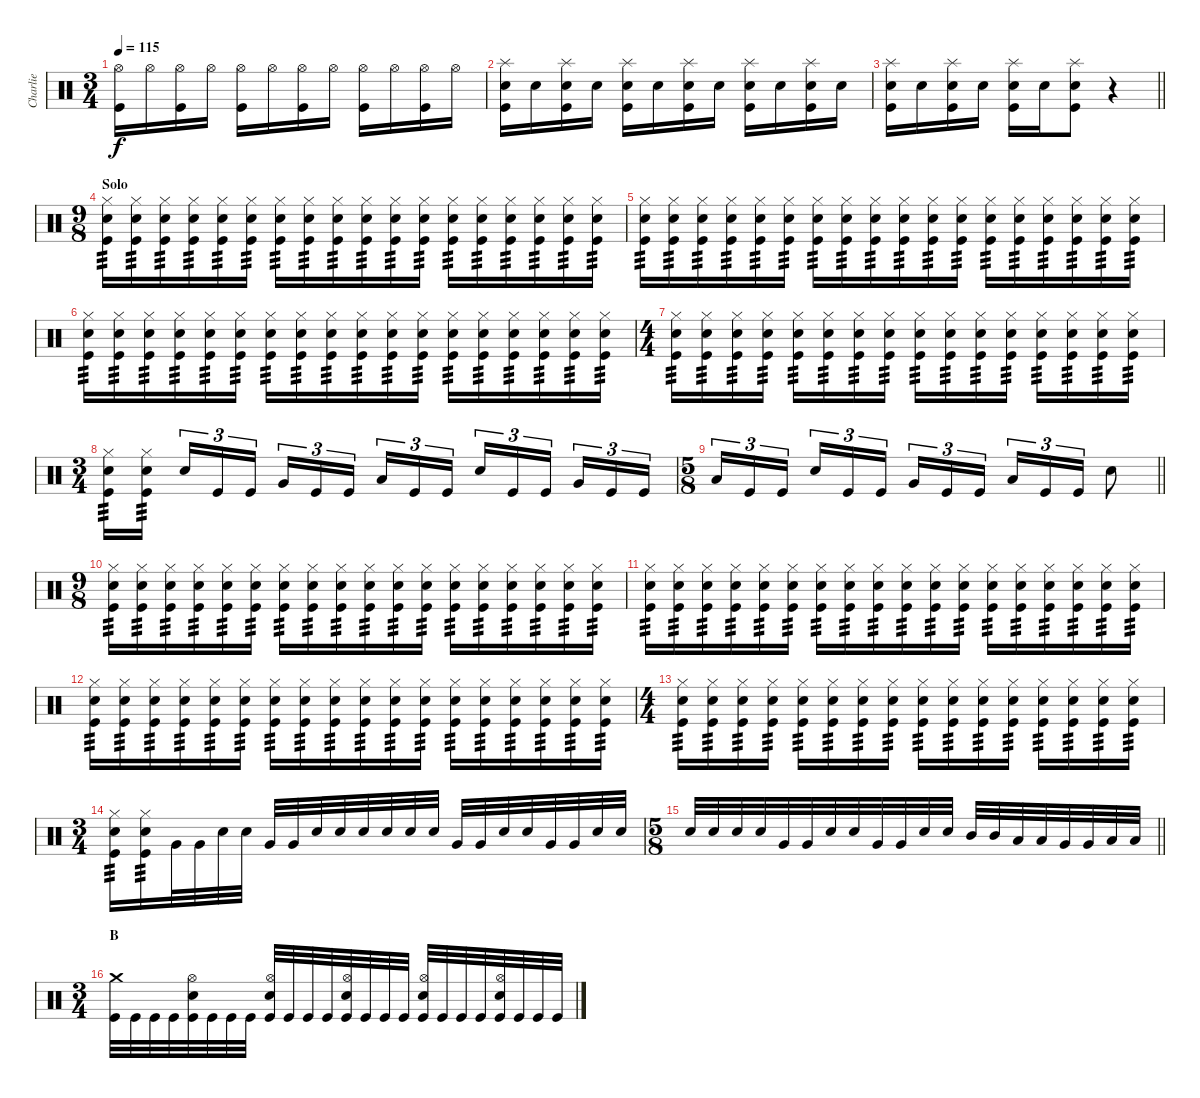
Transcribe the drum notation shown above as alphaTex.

\track ("Charlie" "Charlie") {instrument percussion}
\staff {score}
\articulation defaults
\ts (3 4)
\tempo 115
\clef neutral
\ks c
("Kick (hit)" "Hi-Hat (open)").16{dy f} "Hi-Hat (open)".16 ("Kick (hit)" "Hi-Hat (open)").16 "Hi-Hat (open)".16 ("Kick (hit)" "Hi-Hat (open)").16 "Hi-Hat (open)".16 ("Kick (hit)" "Hi-Hat (open)").16 "Hi-Hat (open)".16 ("Kick (hit)" "Hi-Hat (open)").16 "Hi-Hat (open)".16 ("Kick (hit)" "Hi-Hat (open)").16 "Hi-Hat (open)".16 |
("Kick (hit)" "Snare (hit) 2" "Splash (hit)").16 "Snare (hit) 2".16 ("Kick (hit)" "Snare (hit) 2" "Splash (hit)").16 "Snare (hit) 2".16 ("Kick (hit)" "Snare (hit) 2" "Splash (hit)").16 "Snare (hit) 2".16 ("Kick (hit)" "Snare (hit) 2" "Splash (hit)").16 "Snare (hit) 2".16 ("Kick (hit)" "Snare (hit) 2" "Splash (hit)").16 "Snare (hit) 2".16 ("Kick (hit)" "Snare (hit) 2" "Splash (hit)").16 "Snare (hit) 2".16 |
\barLineRight lightlight
("Kick (hit)" "Snare (hit) 2" "Splash (hit)").16 "Snare (hit) 2".16 ("Kick (hit)" "Snare (hit) 2" "Splash (hit)").16 "Snare (hit) 2".16 ("Kick (hit)" "Snare (hit) 2" "Splash (hit)").16 "Snare (hit) 2".16 ("Kick (hit)" "Snare (hit) 2" "Splash (hit)").8 r.4 |
\ts (9 8)
\section ("" "Solo")
("Kick (hit)" "Hi-Hat (closed)" "Snare (hit) 2").16{tp 3} ("Kick (hit)" "Hi-Hat (closed)" "Snare (hit) 2").16{tp 3} ("Kick (hit)" "Hi-Hat (closed)" "Snare (hit) 2").16{tp 3} ("Kick (hit)" "Hi-Hat (closed)" "Snare (hit) 2").16{tp 3} ("Kick (hit)" "Hi-Hat (closed)" "Snare (hit) 2").16{tp 3} ("Kick (hit)" "Hi-Hat (closed)" "Snare (hit) 2").16{tp 3} ("Kick (hit)" "Hi-Hat (closed)" "Snare (hit) 2").16{tp 3} ("Kick (hit)" "Hi-Hat (closed)" "Snare (hit) 2").16{tp 3} ("Kick (hit)" "Hi-Hat (closed)" "Snare (hit) 2").16{tp 3} ("Kick (hit)" "Hi-Hat (closed)" "Snare (hit) 2").16{tp 3} ("Kick (hit)" "Hi-Hat (closed)" "Snare (hit) 2").16{tp 3} ("Kick (hit)" "Hi-Hat (closed)" "Snare (hit) 2").16{tp 3} ("Kick (hit)" "Hi-Hat (closed)" "Snare (hit) 2").16{tp 3} ("Kick (hit)" "Hi-Hat (closed)" "Snare (hit) 2").16{tp 3} ("Kick (hit)" "Hi-Hat (closed)" "Snare (hit) 2").16{tp 3} ("Kick (hit)" "Hi-Hat (closed)" "Snare (hit) 2").16{tp 3} ("Kick (hit)" "Hi-Hat (closed)" "Snare (hit) 2").16{tp 3} ("Kick (hit)" "Hi-Hat (closed)" "Snare (hit) 2").16{tp 3} |
("Kick (hit)" "Hi-Hat (closed)" "Snare (hit) 2").16{tp 3} ("Kick (hit)" "Hi-Hat (closed)" "Snare (hit) 2").16{tp 3} ("Kick (hit)" "Hi-Hat (closed)" "Snare (hit) 2").16{tp 3} ("Kick (hit)" "Hi-Hat (closed)" "Snare (hit) 2").16{tp 3} ("Kick (hit)" "Hi-Hat (closed)" "Snare (hit) 2").16{tp 3} ("Kick (hit)" "Hi-Hat (closed)" "Snare (hit) 2").16{tp 3} ("Kick (hit)" "Hi-Hat (closed)" "Snare (hit) 2").16{tp 3} ("Kick (hit)" "Hi-Hat (closed)" "Snare (hit) 2").16{tp 3} ("Kick (hit)" "Hi-Hat (closed)" "Snare (hit) 2").16{tp 3} ("Kick (hit)" "Hi-Hat (closed)" "Snare (hit) 2").16{tp 3} ("Kick (hit)" "Hi-Hat (closed)" "Snare (hit) 2").16{tp 3} ("Kick (hit)" "Hi-Hat (closed)" "Snare (hit) 2").16{tp 3} ("Kick (hit)" "Hi-Hat (closed)" "Snare (hit) 2").16{tp 3} ("Kick (hit)" "Hi-Hat (closed)" "Snare (hit) 2").16{tp 3} ("Kick (hit)" "Hi-Hat (closed)" "Snare (hit) 2").16{tp 3} ("Kick (hit)" "Hi-Hat (closed)" "Snare (hit) 2").16{tp 3} ("Kick (hit)" "Hi-Hat (closed)" "Snare (hit) 2").16{tp 3} ("Kick (hit)" "Hi-Hat (closed)" "Snare (hit) 2").16{tp 3} |
("Kick (hit)" "Hi-Hat (closed)" "Snare (hit) 2").16{tp 3} ("Kick (hit)" "Hi-Hat (closed)" "Snare (hit) 2").16{tp 3} ("Kick (hit)" "Hi-Hat (closed)" "Snare (hit) 2").16{tp 3} ("Kick (hit)" "Hi-Hat (closed)" "Snare (hit) 2").16{tp 3} ("Kick (hit)" "Hi-Hat (closed)" "Snare (hit) 2").16{tp 3} ("Kick (hit)" "Hi-Hat (closed)" "Snare (hit) 2").16{tp 3} ("Kick (hit)" "Hi-Hat (closed)" "Snare (hit) 2").16{tp 3} ("Kick (hit)" "Hi-Hat (closed)" "Snare (hit) 2").16{tp 3} ("Kick (hit)" "Hi-Hat (closed)" "Snare (hit) 2").16{tp 3} ("Kick (hit)" "Hi-Hat (closed)" "Snare (hit) 2").16{tp 3} ("Kick (hit)" "Hi-Hat (closed)" "Snare (hit) 2").16{tp 3} ("Kick (hit)" "Hi-Hat (closed)" "Snare (hit) 2").16{tp 3} ("Kick (hit)" "Hi-Hat (closed)" "Snare (hit) 2").16{tp 3} ("Kick (hit)" "Hi-Hat (closed)" "Snare (hit) 2").16{tp 3} ("Kick (hit)" "Hi-Hat (closed)" "Snare (hit) 2").16{tp 3} ("Kick (hit)" "Hi-Hat (closed)" "Snare (hit) 2").16{tp 3} ("Kick (hit)" "Hi-Hat (closed)" "Snare (hit) 2").16{tp 3} ("Kick (hit)" "Hi-Hat (closed)" "Snare (hit) 2").16{tp 3} |
\ts (4 4)
("Kick (hit)" "Hi-Hat (closed)" "Snare (hit) 2").16{tp 3} ("Kick (hit)" "Hi-Hat (closed)" "Snare (hit) 2").16{tp 3} ("Kick (hit)" "Hi-Hat (closed)" "Snare (hit) 2").16{tp 3} ("Kick (hit)" "Hi-Hat (closed)" "Snare (hit) 2").16{tp 3} ("Kick (hit)" "Hi-Hat (closed)" "Snare (hit) 2").16{tp 3} ("Kick (hit)" "Hi-Hat (closed)" "Snare (hit) 2").16{tp 3} ("Kick (hit)" "Hi-Hat (closed)" "Snare (hit) 2").16{tp 3} ("Kick (hit)" "Hi-Hat (closed)" "Snare (hit) 2").16{tp 3} ("Kick (hit)" "Hi-Hat (closed)" "Snare (hit) 2").16{tp 3} ("Kick (hit)" "Hi-Hat (closed)" "Snare (hit) 2").16{tp 3} ("Kick (hit)" "Hi-Hat (closed)" "Snare (hit) 2").16{tp 3} ("Kick (hit)" "Hi-Hat (closed)" "Snare (hit) 2").16{tp 3} ("Kick (hit)" "Hi-Hat (closed)" "Snare (hit) 2").16{tp 3} ("Kick (hit)" "Hi-Hat (closed)" "Snare (hit) 2").16{tp 3} ("Kick (hit)" "Hi-Hat (closed)" "Snare (hit) 2").16{tp 3} ("Kick (hit)" "Hi-Hat (closed)" "Snare (hit) 2").16{tp 3} |
\ts (3 4)
("Kick (hit)" "Hi-Hat (closed)" "Snare (hit) 2").16{tp 3} ("Kick (hit)" "Hi-Hat (closed)" "Snare (hit) 2").16{tp 3 beam splitsecondary} "Snare (hit) 2".16{tu (3 2)} "Kick (hit)".16{tu (3 2)} "Kick (hit)".16{tu (3 2)} "Very Low Tom (hit)".16{tu (3 2)} "Kick (hit)".16{tu (3 2)} "Kick (hit)".16{tu (3 2) beam splitsecondary} "Low Floor Tom (hit)".16{tu (3 2)} "Kick (hit)".16{tu (3 2)} "Kick (hit)".16{tu (3 2)} "Snare (hit) 2".16{tu (3 2)} "Kick (hit)".16{tu (3 2)} "Kick (hit)".16{tu (3 2) beam splitsecondary} "Very Low Tom (hit)".16{tu (3 2)} "Kick (hit)".16{tu (3 2)} "Kick (hit)".16{tu (3 2)} |
\ts (5 8)
\barLineRight lightlight "Low Floor Tom (hit)".16{tu (3 2)} "Kick (hit)".16{tu (3 2)} "Kick (hit)".16{tu (3 2)} "Snare (hit) 2".16{tu (3 2)} "Kick (hit)".16{tu (3 2)} "Kick (hit)".16{tu (3 2)} "Very Low Tom (hit)".16{tu (3 2)} "Kick (hit)".16{tu (3 2)} "Kick (hit)".16{tu (3 2)} "Low Floor Tom (hit)".16{tu (3 2)} "Kick (hit)".16{tu (3 2)} "Kick (hit)".16{tu (3 2)} "Snare (hit) 2".8
|
\ts (9 8)
("Kick (hit)" "Hi-Hat (closed)" "Snare (hit) 2").16{tp 3} ("Kick (hit)" "Hi-Hat (closed)" "Snare (hit) 2").16{tp 3} ("Kick (hit)" "Hi-Hat (closed)" "Snare (hit) 2").16{tp 3} ("Kick (hit)" "Hi-Hat (closed)" "Snare (hit) 2").16{tp 3} ("Kick (hit)" "Hi-Hat (closed)" "Snare (hit) 2").16{tp 3} ("Kick (hit)" "Hi-Hat (closed)" "Snare (hit) 2").16{tp 3} ("Kick (hit)" "Hi-Hat (closed)" "Snare (hit) 2").16{tp 3} ("Kick (hit)" "Hi-Hat (closed)" "Snare (hit) 2").16{tp 3} ("Kick (hit)" "Hi-Hat (closed)" "Snare (hit) 2").16{tp 3} ("Kick (hit)" "Hi-Hat (closed)" "Snare (hit) 2").16{tp 3} ("Kick (hit)" "Hi-Hat (closed)" "Snare (hit) 2").16{tp 3} ("Kick (hit)" "Hi-Hat (closed)" "Snare (hit) 2").16{tp 3} ("Kick (hit)" "Hi-Hat (closed)" "Snare (hit) 2").16{tp 3} ("Kick (hit)" "Hi-Hat (closed)" "Snare (hit) 2").16{tp 3} ("Kick (hit)" "Hi-Hat (closed)" "Snare (hit) 2").16{tp 3} ("Kick (hit)" "Hi-Hat (closed)" "Snare (hit) 2").16{tp 3} ("Kick (hit)" "Hi-Hat (closed)" "Snare (hit) 2").16{tp 3} ("Kick (hit)" "Hi-Hat (closed)" "Snare (hit) 2").16{tp 3} |
("Kick (hit)" "Hi-Hat (closed)" "Snare (hit) 2").16{tp 3} ("Kick (hit)" "Hi-Hat (closed)" "Snare (hit) 2").16{tp 3} ("Kick (hit)" "Hi-Hat (closed)" "Snare (hit) 2").16{tp 3} ("Kick (hit)" "Hi-Hat (closed)" "Snare (hit) 2").16{tp 3} ("Kick (hit)" "Hi-Hat (closed)" "Snare (hit) 2").16{tp 3} ("Kick (hit)" "Hi-Hat (closed)" "Snare (hit) 2").16{tp 3} ("Kick (hit)" "Hi-Hat (closed)" "Snare (hit) 2").16{tp 3} ("Kick (hit)" "Hi-Hat (closed)" "Snare (hit) 2").16{tp 3} ("Kick (hit)" "Hi-Hat (closed)" "Snare (hit) 2").16{tp 3} ("Kick (hit)" "Hi-Hat (closed)" "Snare (hit) 2").16{tp 3} ("Kick (hit)" "Hi-Hat (closed)" "Snare (hit) 2").16{tp 3} ("Kick (hit)" "Hi-Hat (closed)" "Snare (hit) 2").16{tp 3} ("Kick (hit)" "Hi-Hat (closed)" "Snare (hit) 2").16{tp 3} ("Kick (hit)" "Hi-Hat (closed)" "Snare (hit) 2").16{tp 3} ("Kick (hit)" "Hi-Hat (closed)" "Snare (hit) 2").16{tp 3} ("Kick (hit)" "Hi-Hat (closed)" "Snare (hit) 2").16{tp 3} ("Kick (hit)" "Hi-Hat (closed)" "Snare (hit) 2").16{tp 3} ("Kick (hit)" "Hi-Hat (closed)" "Snare (hit) 2").16{tp 3} |
("Kick (hit)" "Hi-Hat (closed)" "Snare (hit) 2").16{tp 3} ("Kick (hit)" "Hi-Hat (closed)" "Snare (hit) 2").16{tp 3} ("Kick (hit)" "Hi-Hat (closed)" "Snare (hit) 2").16{tp 3} ("Kick (hit)" "Hi-Hat (closed)" "Snare (hit) 2").16{tp 3} ("Kick (hit)" "Hi-Hat (closed)" "Snare (hit) 2").16{tp 3} ("Kick (hit)" "Hi-Hat (closed)" "Snare (hit) 2").16{tp 3} ("Kick (hit)" "Hi-Hat (closed)" "Snare (hit) 2").16{tp 3} ("Kick (hit)" "Hi-Hat (closed)" "Snare (hit) 2").16{tp 3} ("Kick (hit)" "Hi-Hat (closed)" "Snare (hit) 2").16{tp 3} ("Kick (hit)" "Hi-Hat (closed)" "Snare (hit) 2").16{tp 3} ("Kick (hit)" "Hi-Hat (closed)" "Snare (hit) 2").16{tp 3} ("Kick (hit)" "Hi-Hat (closed)" "Snare (hit) 2").16{tp 3} ("Kick (hit)" "Hi-Hat (closed)" "Snare (hit) 2").16{tp 3} ("Kick (hit)" "Hi-Hat (closed)" "Snare (hit) 2").16{tp 3} ("Kick (hit)" "Hi-Hat (closed)" "Snare (hit) 2").16{tp 3} ("Kick (hit)" "Hi-Hat (closed)" "Snare (hit) 2").16{tp 3} ("Kick (hit)" "Hi-Hat (closed)" "Snare (hit) 2").16{tp 3} ("Kick (hit)" "Hi-Hat (closed)" "Snare (hit) 2").16{tp 3} |
\ts (4 4)
("Kick (hit)" "Hi-Hat (closed)" "Snare (hit) 2").16{tp 3} ("Kick (hit)" "Hi-Hat (closed)" "Snare (hit) 2").16{tp 3} ("Kick (hit)" "Hi-Hat (closed)" "Snare (hit) 2").16{tp 3} ("Kick (hit)" "Hi-Hat (closed)" "Snare (hit) 2").16{tp 3} ("Kick (hit)" "Hi-Hat (closed)" "Snare (hit) 2").16{tp 3} ("Kick (hit)" "Hi-Hat (closed)" "Snare (hit) 2").16{tp 3} ("Kick (hit)" "Hi-Hat (closed)" "Snare (hit) 2").16{tp 3} ("Kick (hit)" "Hi-Hat (closed)" "Snare (hit) 2").16{tp 3} ("Kick (hit)" "Hi-Hat (closed)" "Snare (hit) 2").16{tp 3} ("Kick (hit)" "Hi-Hat (closed)" "Snare (hit) 2").16{tp 3} ("Kick (hit)" "Hi-Hat (closed)" "Snare (hit) 2").16{tp 3} ("Kick (hit)" "Hi-Hat (closed)" "Snare (hit) 2").16{tp 3} ("Kick (hit)" "Hi-Hat (closed)" "Snare (hit) 2").16{tp 3} ("Kick (hit)" "Hi-Hat (closed)" "Snare (hit) 2").16{tp 3} ("Kick (hit)" "Hi-Hat (closed)" "Snare (hit) 2").16{tp 3} ("Kick (hit)" "Hi-Hat (closed)" "Snare (hit) 2").16{tp 3} |
\ts (3 4)
("Kick (hit)" "Hi-Hat (closed)" "Snare (hit) 2").16{tp 3} ("Kick (hit)" "Hi-Hat (closed)" "Snare (hit) 2").16{tp 3} "Very Low Tom (hit)".32 "Very Low Tom (hit)".32 "Snare (hit) 2".32 "Snare (hit) 2".32 "Very Low Tom (hit)".32 "Very Low Tom (hit)".32 "Snare (hit) 2".32 "Snare (hit) 2".32 "Snare (hit) 2".32 "Snare (hit) 2".32 "Snare (hit) 2".32 "Snare (hit) 2".32 "Very Low Tom (hit)".32 "Very Low Tom (hit)".32 "Snare (hit) 2".32 "Snare (hit) 2".32 "Very Low Tom (hit)".32 "Very Low Tom (hit)".32 "Snare (hit) 2".32 "Snare (hit) 2".32 |
\ts (5 8)
\barLineRight lightlight "Snare (hit) 2".32 "Snare (hit) 2".32 "Snare (hit) 2".32 "Snare (hit) 2".32 "Very Low Tom (hit)".32 "Very Low Tom (hit)".32 "Snare (hit) 2".32 "Snare (hit) 2".32 "Very Low Tom (hit)".32 "Very Low Tom (hit)".32 "Snare (hit) 2".32 "Snare (hit) 2".32 "Mid Tom (hit)".32 "Mid Tom (hit)".32 "Low Tom (hit)".32 "Low Tom (hit)".32 "Very Low Tom (hit)".32 "Very Low Tom (hit)".32 "Low Floor Tom (hit)".32 "Low Floor Tom (hit)".32
|
\ts (3 4)
\section ("" "B")
("Kick (hit)" "Crash medium (hit)").32 "Kick (hit)".32 "Kick (hit)".32 "Kick (hit)".32 ("Kick (hit)" "Snare (hit) 2" "Hi-Hat (open)").32 "Kick (hit)".32 "Kick (hit)".32 "Kick (hit)".32 ("Kick (hit)" "Snare (hit) 2" "Hi-Hat (open)").32 "Kick (hit)".32 "Kick (hit)".32 "Kick (hit)".32 ("Kick (hit)" "Snare (hit) 2" "Hi-Hat (open)").32 "Kick (hit)".32 "Kick (hit)".32 "Kick (hit)".32 ("Kick (hit)" "Snare (hit) 2" "Hi-Hat (open)").32 "Kick (hit)".32 "Kick (hit)".32 "Kick (hit)".32 ("Kick (hit)" "Snare (hit) 2" "Hi-Hat (open)").32 "Kick (hit)".32 "Kick (hit)".32 "Kick (hit)".32
